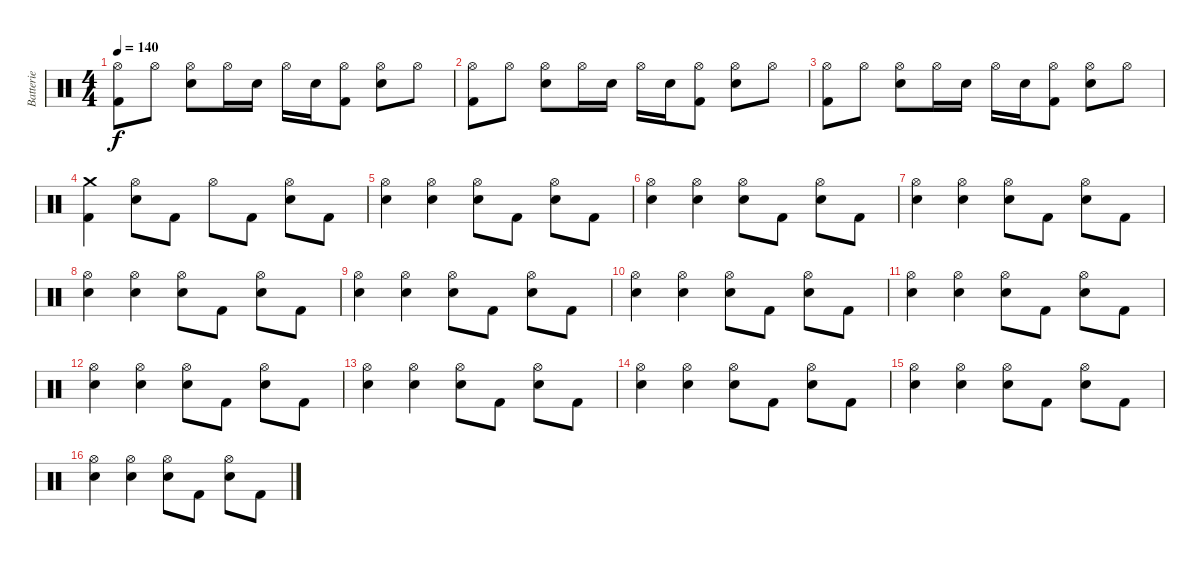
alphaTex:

\track ("Batterie" "Batterie") {instrument percussion}
\staff {score}
\articulation defaults
\ts (4 4)
\tempo 140
\clef neutral
\ks c
("Kick (hit) 2" "Hi-Hat (open)").8{dy f} "Hi-Hat (open)".8 ("Electric Snare (hit)" "Hi-Hat (open)").8 "Hi-Hat (open)".16 "Electric Snare (hit)".16 "Hi-Hat (open)".16 "Electric Snare (hit)".16 ("Kick (hit) 2" "Hi-Hat (open)").8 ("Electric Snare (hit)" "Hi-Hat (open)").8 "Hi-Hat (open)".8 |
("Kick (hit) 2" "Hi-Hat (open)").8 "Hi-Hat (open)".8 ("Electric Snare (hit)" "Hi-Hat (open)").8 "Hi-Hat (open)".16 "Electric Snare (hit)".16 "Hi-Hat (open)".16 "Electric Snare (hit)".16 ("Kick (hit) 2" "Hi-Hat (open)").8 ("Electric Snare (hit)" "Hi-Hat (open)").8 "Hi-Hat (open)".8 |
("Kick (hit) 2" "Hi-Hat (open)").8 "Hi-Hat (open)".8 ("Electric Snare (hit)" "Hi-Hat (open)").8 "Hi-Hat (open)".16 "Electric Snare (hit)".16 "Hi-Hat (open)".16 "Electric Snare (hit)".16 ("Kick (hit) 2" "Hi-Hat (open)").8 ("Electric Snare (hit)" "Hi-Hat (open)").8 "Hi-Hat (open)".8 |
("Kick (hit) 2" "Crash medium (hit)").4 ("Electric Snare (hit)" "Hi-Hat (open)").8 "Kick (hit) 2".8 "Hi-Hat (open)".8 "Kick (hit) 2".8 ("Electric Snare (hit)" "Hi-Hat (open)").8 "Kick (hit) 2".8 |
("Electric Snare (hit)" "Hi-Hat (open)").4 ("Electric Snare (hit)" "Hi-Hat (open)").4 ("Electric Snare (hit)" "Hi-Hat (open)").8 "Kick (hit) 2".8 ("Electric Snare (hit)" "Hi-Hat (open)").8 "Kick (hit) 2".8 |
("Electric Snare (hit)" "Hi-Hat (open)").4 ("Electric Snare (hit)" "Hi-Hat (open)").4 ("Electric Snare (hit)" "Hi-Hat (open)").8 "Kick (hit) 2".8 ("Electric Snare (hit)" "Hi-Hat (open)").8 "Kick (hit) 2".8 |
("Electric Snare (hit)" "Hi-Hat (open)").4 ("Electric Snare (hit)" "Hi-Hat (open)").4 ("Electric Snare (hit)" "Hi-Hat (open)").8 "Kick (hit) 2".8 ("Electric Snare (hit)" "Hi-Hat (open)").8 "Kick (hit) 2".8 |
("Electric Snare (hit)" "Hi-Hat (open)").4 ("Electric Snare (hit)" "Hi-Hat (open)").4 ("Electric Snare (hit)" "Hi-Hat (open)").8 "Kick (hit) 2".8 ("Electric Snare (hit)" "Hi-Hat (open)").8 "Kick (hit) 2".8 |
("Electric Snare (hit)" "Hi-Hat (open)").4 ("Electric Snare (hit)" "Hi-Hat (open)").4 ("Electric Snare (hit)" "Hi-Hat (open)").8 "Kick (hit) 2".8 ("Electric Snare (hit)" "Hi-Hat (open)").8 "Kick (hit) 2".8 |
("Electric Snare (hit)" "Hi-Hat (open)").4 ("Electric Snare (hit)" "Hi-Hat (open)").4 ("Electric Snare (hit)" "Hi-Hat (open)").8 "Kick (hit) 2".8 ("Electric Snare (hit)" "Hi-Hat (open)").8 "Kick (hit) 2".8 |
("Electric Snare (hit)" "Hi-Hat (open)").4 ("Electric Snare (hit)" "Hi-Hat (open)").4 ("Electric Snare (hit)" "Hi-Hat (open)").8 "Kick (hit) 2".8 ("Electric Snare (hit)" "Hi-Hat (open)").8 "Kick (hit) 2".8 |
("Electric Snare (hit)" "Hi-Hat (open)").4 ("Electric Snare (hit)" "Hi-Hat (open)").4 ("Electric Snare (hit)" "Hi-Hat (open)").8 "Kick (hit) 2".8 ("Electric Snare (hit)" "Hi-Hat (open)").8 "Kick (hit) 2".8 |
("Electric Snare (hit)" "Hi-Hat (open)").4 ("Electric Snare (hit)" "Hi-Hat (open)").4 ("Electric Snare (hit)" "Hi-Hat (open)").8 "Kick (hit) 2".8 ("Electric Snare (hit)" "Hi-Hat (open)").8 "Kick (hit) 2".8 |
("Electric Snare (hit)" "Hi-Hat (open)").4 ("Electric Snare (hit)" "Hi-Hat (open)").4 ("Electric Snare (hit)" "Hi-Hat (open)").8 "Kick (hit) 2".8 ("Electric Snare (hit)" "Hi-Hat (open)").8 "Kick (hit) 2".8 |
("Electric Snare (hit)" "Hi-Hat (open)").4 ("Electric Snare (hit)" "Hi-Hat (open)").4 ("Electric Snare (hit)" "Hi-Hat (open)").8 "Kick (hit) 2".8 ("Electric Snare (hit)" "Hi-Hat (open)").8 "Kick (hit) 2".8 |
("Electric Snare (hit)" "Hi-Hat (open)").4 ("Electric Snare (hit)" "Hi-Hat (open)").4 ("Electric Snare (hit)" "Hi-Hat (open)").8 "Kick (hit) 2".8 ("Electric Snare (hit)" "Hi-Hat (open)").8 "Kick (hit) 2".8
